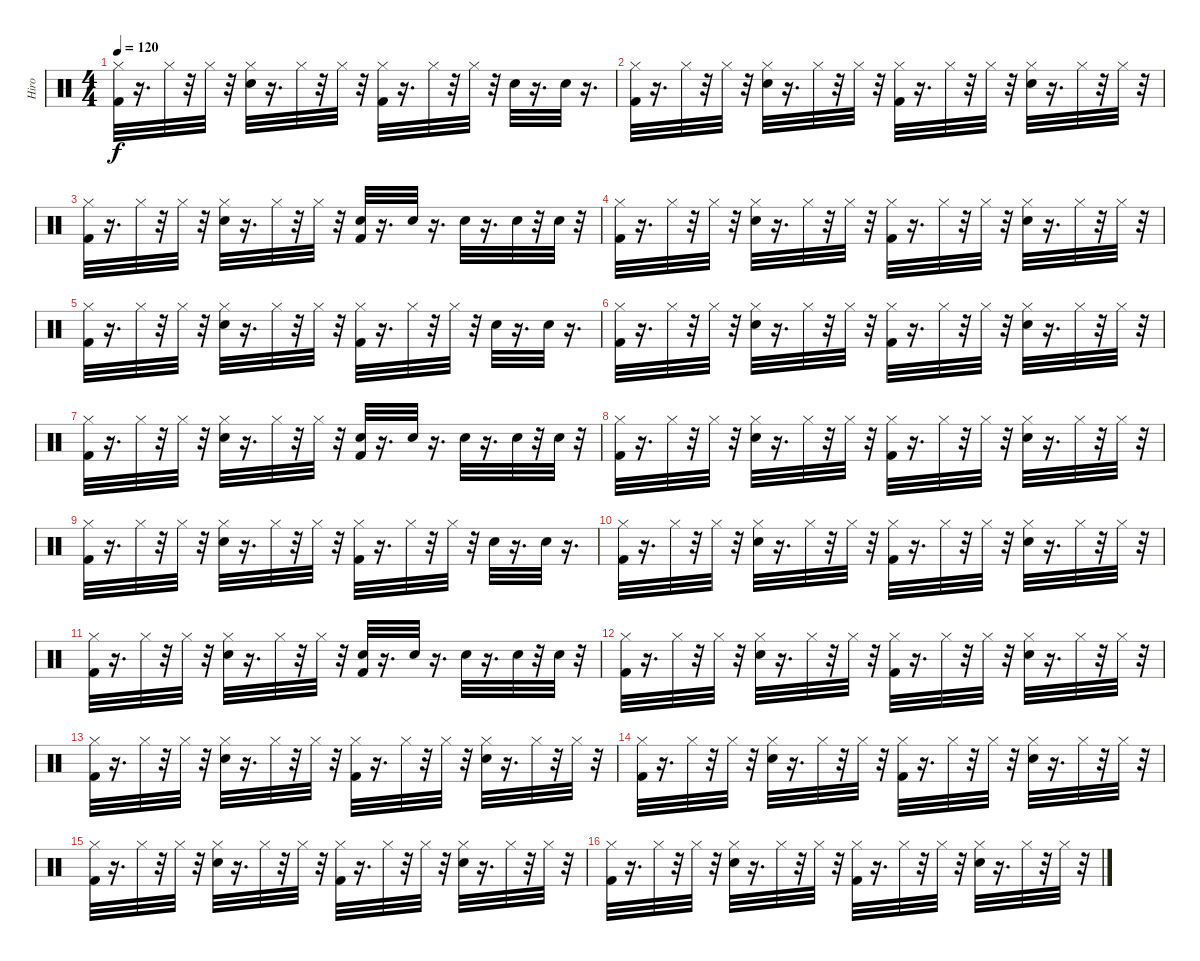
\track ("Hiro" "Hiro") {instrument percussion}
\staff {score}
\articulation defaults
\ts (4 4)
\tempo 120
\clef neutral
\ks c
("Kick (hit) 2" "Hi-Hat (closed)").32{dy f} r.16{d} "Hi-Hat (closed)".32 r.32 "Hi-Hat (closed)".32 r.32 ("Hi-Hat (closed)" "Snare (hit) 2").32 r.16{d} "Hi-Hat (closed)".32 r.32 "Hi-Hat (closed)".32 r.32 ("Kick (hit) 2" "Hi-Hat (closed)").32 r.16{d} "Hi-Hat (closed)".32 r.32 "Hi-Hat (closed)".32 r.32 "Snare (hit) 2".32 r.16{d} "Snare (hit) 2".32 r.16{d} |
("Kick (hit) 2" "Hi-Hat (closed)").32 r.16{d} "Hi-Hat (closed)".32 r.32 "Hi-Hat (closed)".32 r.32 ("Hi-Hat (closed)" "Snare (hit) 2").32 r.16{d} "Hi-Hat (closed)".32 r.32 "Hi-Hat (closed)".32 r.32 ("Kick (hit) 2" "Hi-Hat (closed)").32 r.16{d} "Hi-Hat (closed)".32 r.32 "Hi-Hat (closed)".32 r.32 ("Hi-Hat (closed)" "Snare (hit) 2").32 r.16{d} "Hi-Hat (closed)".32 r.32 "Hi-Hat (closed)".32 r.32 |
("Kick (hit) 2" "Hi-Hat (closed)").32 r.16{d} "Hi-Hat (closed)".32 r.32 "Hi-Hat (closed)".32 r.32 ("Hi-Hat (closed)" "Snare (hit) 2").32 r.16{d} "Hi-Hat (closed)".32 r.32 "Hi-Hat (closed)".32 r.32 ("Snare (hit) 2" "Kick (hit) 2").32 r.16{d} "Snare (hit) 2".32 r.16{d} "Snare (hit) 2".32 r.16{d} "Snare (hit) 2".32 r.32 "Snare (hit) 2".32 r.32 |
("Kick (hit) 2" "Hi-Hat (closed)").32 r.16{d} "Hi-Hat (closed)".32 r.32 "Hi-Hat (closed)".32 r.32 ("Hi-Hat (closed)" "Snare (hit) 2").32 r.16{d} "Hi-Hat (closed)".32 r.32 "Hi-Hat (closed)".32 r.32 ("Kick (hit) 2" "Hi-Hat (closed)").32 r.16{d} "Hi-Hat (closed)".32 r.32 "Hi-Hat (closed)".32 r.32 ("Hi-Hat (closed)" "Snare (hit) 2").32 r.16{d} "Hi-Hat (closed)".32 r.32 "Hi-Hat (closed)".32 r.32 |
("Kick (hit) 2" "Hi-Hat (closed)").32 r.16{d} "Hi-Hat (closed)".32 r.32 "Hi-Hat (closed)".32 r.32 ("Hi-Hat (closed)" "Snare (hit) 2").32 r.16{d} "Hi-Hat (closed)".32 r.32 "Hi-Hat (closed)".32 r.32 ("Hi-Hat (closed)" "Kick (hit) 2").32 r.16{d} "Hi-Hat (closed)".32 r.32 "Hi-Hat (closed)".32 r.32 "Snare (hit) 2".32 r.16{d} "Snare (hit) 2".32 r.16{d} |
("Kick (hit) 2" "Hi-Hat (closed)").32 r.16{d} "Hi-Hat (closed)".32 r.32 "Hi-Hat (closed)".32 r.32 ("Hi-Hat (closed)" "Snare (hit) 2").32 r.16{d} "Hi-Hat (closed)".32 r.32 "Hi-Hat (closed)".32 r.32 ("Kick (hit) 2" "Hi-Hat (closed)").32 r.16{d} "Hi-Hat (closed)".32 r.32 "Hi-Hat (closed)".32 r.32 ("Hi-Hat (closed)" "Snare (hit) 2").32 r.16{d} "Hi-Hat (closed)".32 r.32 "Hi-Hat (closed)".32 r.32 |
("Kick (hit) 2" "Hi-Hat (closed)").32 r.16{d} "Hi-Hat (closed)".32 r.32 "Hi-Hat (closed)".32 r.32 ("Hi-Hat (closed)" "Snare (hit) 2").32 r.16{d} "Hi-Hat (closed)".32 r.32 "Hi-Hat (closed)".32 r.32 ("Snare (hit) 2" "Kick (hit) 2").32 r.16{d} "Snare (hit) 2".32 r.16{d} "Snare (hit) 2".32 r.16{d} "Snare (hit) 2".32 r.32 "Snare (hit) 2".32 r.32 |
("Kick (hit) 2" "Hi-Hat (closed)").32 r.16{d} "Hi-Hat (closed)".32 r.32 "Hi-Hat (closed)".32 r.32 ("Hi-Hat (closed)" "Snare (hit) 2").32 r.16{d} "Hi-Hat (closed)".32 r.32 "Hi-Hat (closed)".32 r.32 ("Hi-Hat (closed)" "Kick (hit) 2").32 r.16{d} "Hi-Hat (closed)".32 r.32 "Hi-Hat (closed)".32 r.32 ("Hi-Hat (closed)" "Snare (hit) 2").32 r.16{d} "Hi-Hat (closed)".32 r.32 "Hi-Hat (closed)".32 r.32 |
("Kick (hit) 2" "Hi-Hat (closed)").32 r.16{d} "Hi-Hat (closed)".32 r.32 "Hi-Hat (closed)".32 r.32 ("Hi-Hat (closed)" "Snare (hit) 2").32 r.16{d} "Hi-Hat (closed)".32 r.32 "Hi-Hat (closed)".32 r.32 ("Kick (hit) 2" "Hi-Hat (closed)").32 r.16{d} "Hi-Hat (closed)".32 r.32 "Hi-Hat (closed)".32 r.32 "Snare (hit) 2".32 r.16{d} "Snare (hit) 2".32 r.16{d} |
("Kick (hit) 2" "Hi-Hat (closed)").32 r.16{d} "Hi-Hat (closed)".32 r.32 "Hi-Hat (closed)".32 r.32 ("Hi-Hat (closed)" "Snare (hit) 2").32 r.16{d} "Hi-Hat (closed)".32 r.32 "Hi-Hat (closed)".32 r.32 ("Hi-Hat (closed)" "Kick (hit) 2").32 r.16{d} "Hi-Hat (closed)".32 r.32 "Hi-Hat (closed)".32 r.32 ("Hi-Hat (closed)" "Snare (hit) 2").32 r.16{d} "Hi-Hat (closed)".32 r.32 "Hi-Hat (closed)".32 r.32 |
("Kick (hit) 2" "Hi-Hat (closed)").32 r.16{d} "Hi-Hat (closed)".32 r.32 "Hi-Hat (closed)".32 r.32 ("Hi-Hat (closed)" "Snare (hit) 2").32 r.16{d} "Hi-Hat (closed)".32 r.32 "Hi-Hat (closed)".32 r.32 ("Kick (hit) 2" "Snare (hit) 2").32 r.16{d} "Snare (hit) 2".32 r.16{d} "Snare (hit) 2".32 r.16{d} "Snare (hit) 2".32 r.32 "Snare (hit) 2".32 r.32 |
("Kick (hit) 2" "Hi-Hat (closed)").32 r.16{d} "Hi-Hat (closed)".32 r.32 "Hi-Hat (closed)".32 r.32 ("Hi-Hat (closed)" "Snare (hit) 2").32 r.16{d} "Hi-Hat (closed)".32 r.32 "Hi-Hat (closed)".32 r.32 ("Kick (hit) 2" "Hi-Hat (closed)").32 r.16{d} "Hi-Hat (closed)".32 r.32 "Hi-Hat (closed)".32 r.32 ("Hi-Hat (closed)" "Snare (hit) 2").32 r.16{d} "Hi-Hat (closed)".32 r.32 "Hi-Hat (closed)".32 r.32 |
("Kick (hit) 2" "Hi-Hat (closed)").32 r.16{d} "Hi-Hat (closed)".32 r.32 "Hi-Hat (closed)".32 r.32 ("Hi-Hat (closed)" "Snare (hit) 2").32 r.16{d} "Hi-Hat (closed)".32 r.32 "Hi-Hat (closed)".32 r.32 ("Hi-Hat (closed)" "Kick (hit) 2").32 r.16{d} "Hi-Hat (closed)".32 r.32 "Hi-Hat (closed)".32 r.32 ("Hi-Hat (closed)" "Snare (hit) 2").32 r.16{d} "Hi-Hat (closed)".32 r.32 "Hi-Hat (closed)".32 r.32 |
("Kick (hit) 2" "Hi-Hat (closed)").32 r.16{d} "Hi-Hat (closed)".32 r.32 "Hi-Hat (closed)".32 r.32 ("Hi-Hat (closed)" "Snare (hit) 2").32 r.16{d} "Hi-Hat (closed)".32 r.32 "Hi-Hat (closed)".32 r.32 ("Hi-Hat (closed)" "Kick (hit) 2").32 r.16{d} "Hi-Hat (closed)".32 r.32 "Hi-Hat (closed)".32 r.32 ("Hi-Hat (closed)" "Snare (hit) 2").32 r.16{d} "Hi-Hat (closed)".32 r.32 "Hi-Hat (closed)".32 r.32 |
("Kick (hit) 2" "Hi-Hat (closed)").32 r.16{d} "Hi-Hat (closed)".32 r.32 "Hi-Hat (closed)".32 r.32 ("Hi-Hat (closed)" "Snare (hit) 2").32 r.16{d} "Hi-Hat (closed)".32 r.32 "Hi-Hat (closed)".32 r.32 ("Kick (hit) 2" "Hi-Hat (closed)").32 r.16{d} "Hi-Hat (closed)".32 r.32 "Hi-Hat (closed)".32 r.32 ("Hi-Hat (closed)" "Snare (hit) 2").32 r.16{d} "Hi-Hat (closed)".32 r.32 "Hi-Hat (closed)".32 r.32 |
("Kick (hit) 2" "Hi-Hat (closed)").32 r.16{d} "Hi-Hat (closed)".32 r.32 "Hi-Hat (closed)".32 r.32 ("Hi-Hat (closed)" "Snare (hit) 2").32 r.16{d} "Hi-Hat (closed)".32 r.32 "Hi-Hat (closed)".32 r.32 ("Hi-Hat (closed)" "Kick (hit) 2").32 r.16{d} "Hi-Hat (closed)".32 r.32 "Hi-Hat (closed)".32 r.32 ("Hi-Hat (closed)" "Snare (hit) 2").32 r.16{d} "Hi-Hat (closed)".32 r.32 "Hi-Hat (closed)".32 r.32
